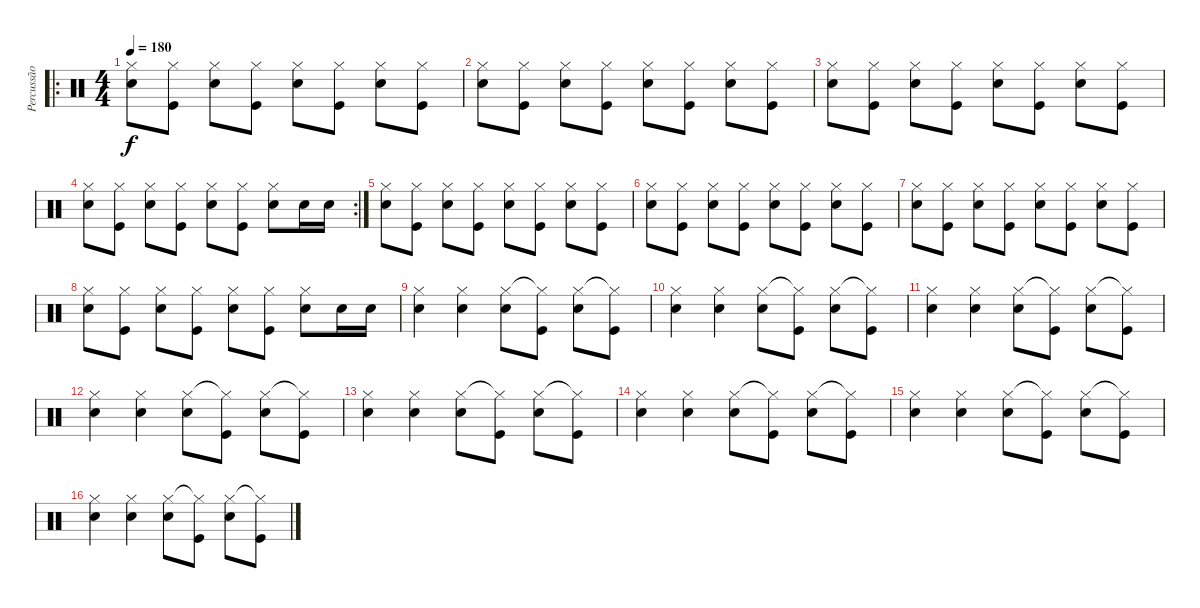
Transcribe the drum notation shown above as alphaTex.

\track ("Percussão" "Percussão") {instrument percussion}
\staff {score}
\articulation defaults
\ro
\ts (4 4)
\tempo 180
\clef neutral
\ks c
("Hi-Hat (closed)" "Snare (hit) 2").8{dy f} ("Hi-Hat (closed)" "Kick (hit)").8 ("Hi-Hat (closed)" "Snare (hit) 2").8 ("Hi-Hat (closed)" "Kick (hit)").8 ("Hi-Hat (closed)" "Snare (hit) 2").8 ("Hi-Hat (closed)" "Kick (hit)").8 ("Hi-Hat (closed)" "Snare (hit) 2").8 ("Hi-Hat (closed)" "Kick (hit)").8 |
("Hi-Hat (closed)" "Snare (hit) 2").8 ("Hi-Hat (closed)" "Kick (hit)").8 ("Hi-Hat (closed)" "Snare (hit) 2").8 ("Hi-Hat (closed)" "Kick (hit)").8 ("Hi-Hat (closed)" "Snare (hit) 2").8 ("Hi-Hat (closed)" "Kick (hit)").8 ("Hi-Hat (closed)" "Snare (hit) 2").8 ("Hi-Hat (closed)" "Kick (hit)").8 |
("Hi-Hat (closed)" "Snare (hit) 2").8 ("Hi-Hat (closed)" "Kick (hit)").8 ("Hi-Hat (closed)" "Snare (hit) 2").8 ("Hi-Hat (closed)" "Kick (hit)").8 ("Hi-Hat (closed)" "Snare (hit) 2").8 ("Hi-Hat (closed)" "Kick (hit)").8 ("Hi-Hat (closed)" "Snare (hit) 2").8 ("Hi-Hat (closed)" "Kick (hit)").8 |
\rc 2
("Hi-Hat (closed)" "Snare (hit) 2").8 ("Hi-Hat (closed)" "Kick (hit)").8 ("Hi-Hat (closed)" "Snare (hit) 2").8 ("Hi-Hat (closed)" "Kick (hit)").8 ("Hi-Hat (closed)" "Snare (hit) 2").8 ("Hi-Hat (closed)" "Kick (hit)").8 ("Hi-Hat (closed)" "Snare (hit) 2").8 "Snare (hit) 2".16 "Snare (hit) 2".16 |
("Hi-Hat (closed)" "Snare (hit) 2").8 ("Hi-Hat (closed)" "Kick (hit)").8 ("Hi-Hat (closed)" "Snare (hit) 2").8 ("Hi-Hat (closed)" "Kick (hit)").8 ("Hi-Hat (closed)" "Snare (hit) 2").8 ("Hi-Hat (closed)" "Kick (hit)").8 ("Hi-Hat (closed)" "Snare (hit) 2").8 ("Hi-Hat (closed)" "Kick (hit)").8 |
("Hi-Hat (closed)" "Snare (hit) 2").8 ("Hi-Hat (closed)" "Kick (hit)").8 ("Hi-Hat (closed)" "Snare (hit) 2").8 ("Hi-Hat (closed)" "Kick (hit)").8 ("Hi-Hat (closed)" "Snare (hit) 2").8 ("Hi-Hat (closed)" "Kick (hit)").8 ("Hi-Hat (closed)" "Snare (hit) 2").8 ("Hi-Hat (closed)" "Kick (hit)").8 |
("Hi-Hat (closed)" "Snare (hit) 2").8 ("Hi-Hat (closed)" "Kick (hit)").8 ("Hi-Hat (closed)" "Snare (hit) 2").8 ("Hi-Hat (closed)" "Kick (hit)").8 ("Hi-Hat (closed)" "Snare (hit) 2").8 ("Hi-Hat (closed)" "Kick (hit)").8 ("Hi-Hat (closed)" "Snare (hit) 2").8 ("Hi-Hat (closed)" "Kick (hit)").8 |
("Hi-Hat (closed)" "Snare (hit) 2").8 ("Hi-Hat (closed)" "Kick (hit)").8 ("Hi-Hat (closed)" "Snare (hit) 2").8 ("Hi-Hat (closed)" "Kick (hit)").8 ("Hi-Hat (closed)" "Snare (hit) 2").8 ("Hi-Hat (closed)" "Kick (hit)").8 ("Hi-Hat (closed)" "Snare (hit) 2").8 "Snare (hit) 2".16 "Snare (hit) 2".16 |
("Hi-Hat (closed)" "Snare (hit) 2").4 ("Hi-Hat (closed)" "Snare (hit) 2").4 ("Hi-Hat (closed)" "Snare (hit) 2").8 ("Hi-Hat (closed)"{t} "Kick (hit)").8 ("Hi-Hat (closed)" "Snare (hit) 2").8 ("Hi-Hat (closed)"{t} "Kick (hit)").8 |
("Hi-Hat (closed)" "Snare (hit) 2").4 ("Hi-Hat (closed)" "Snare (hit) 2").4 ("Hi-Hat (closed)" "Snare (hit) 2").8 ("Hi-Hat (closed)"{t} "Kick (hit)").8 ("Hi-Hat (closed)" "Snare (hit) 2").8 ("Hi-Hat (closed)"{t} "Kick (hit)").8 |
("Hi-Hat (closed)" "Snare (hit) 2").4 ("Hi-Hat (closed)" "Snare (hit) 2").4 ("Hi-Hat (closed)" "Snare (hit) 2").8 ("Hi-Hat (closed)"{t} "Kick (hit)").8 ("Hi-Hat (closed)" "Snare (hit) 2").8 ("Hi-Hat (closed)"{t} "Kick (hit)").8 |
("Hi-Hat (closed)" "Snare (hit) 2").4 ("Hi-Hat (closed)" "Snare (hit) 2").4 ("Hi-Hat (closed)" "Snare (hit) 2").8 ("Hi-Hat (closed)"{t} "Kick (hit)").8 ("Hi-Hat (closed)" "Snare (hit) 2").8 ("Hi-Hat (closed)"{t} "Kick (hit)").8 |
("Hi-Hat (closed)" "Snare (hit) 2").4 ("Hi-Hat (closed)" "Snare (hit) 2").4 ("Hi-Hat (closed)" "Snare (hit) 2").8 ("Hi-Hat (closed)"{t} "Kick (hit)").8 ("Hi-Hat (closed)" "Snare (hit) 2").8 ("Hi-Hat (closed)"{t} "Kick (hit)").8 |
("Hi-Hat (closed)" "Snare (hit) 2").4 ("Hi-Hat (closed)" "Snare (hit) 2").4 ("Hi-Hat (closed)" "Snare (hit) 2").8 ("Hi-Hat (closed)"{t} "Kick (hit)").8 ("Hi-Hat (closed)" "Snare (hit) 2").8 ("Hi-Hat (closed)"{t} "Kick (hit)").8 |
("Hi-Hat (closed)" "Snare (hit) 2").4 ("Hi-Hat (closed)" "Snare (hit) 2").4 ("Hi-Hat (closed)" "Snare (hit) 2").8 ("Hi-Hat (closed)"{t} "Kick (hit)").8 ("Hi-Hat (closed)" "Snare (hit) 2").8 ("Hi-Hat (closed)"{t} "Kick (hit)").8 |
("Hi-Hat (closed)" "Snare (hit) 2").4 ("Hi-Hat (closed)" "Snare (hit) 2").4 ("Hi-Hat (closed)" "Snare (hit) 2").8 ("Hi-Hat (closed)"{t} "Kick (hit)").8 ("Hi-Hat (closed)" "Snare (hit) 2").8 ("Hi-Hat (closed)"{t} "Kick (hit)").8
